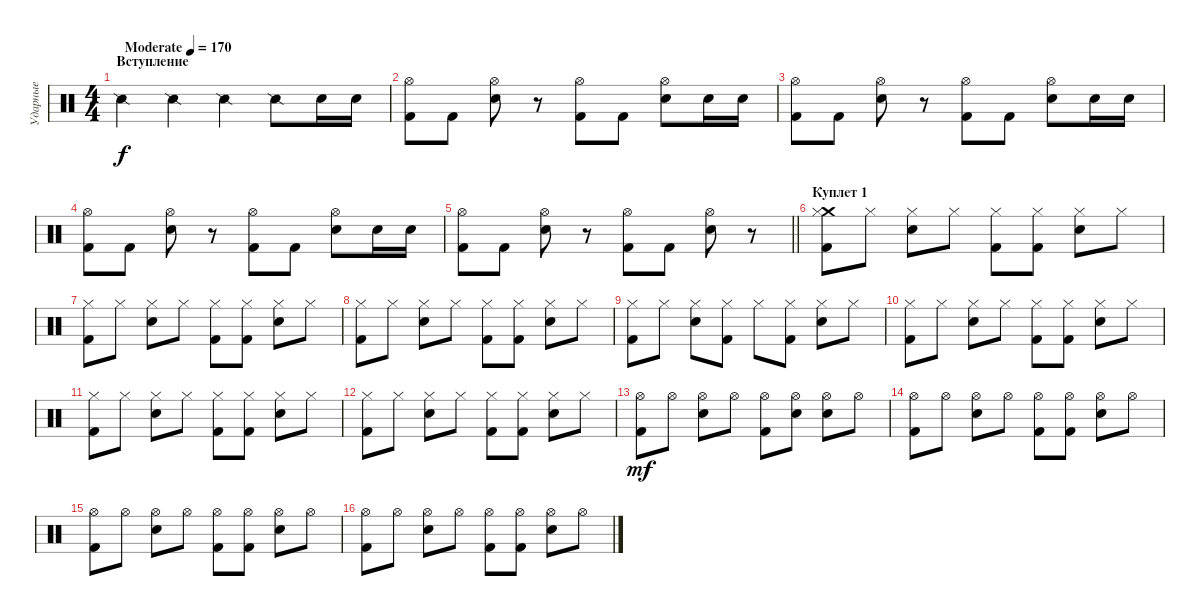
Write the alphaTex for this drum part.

\track ("Ударные" "Ударные") {instrument percussion}
\staff {score}
\articulation defaults
\ts (4 4)
\section ("" "Вступление")
\tempo (170 "Moderate")
\clef neutral
\ks c "Snare (side stick) 2".4{dy f} "Snare (side stick) 2".4 "Snare (side stick) 2".4 "Snare (side stick) 2".8 "Snare (hit) 2".16 "Snare (hit) 2".16
|
("Hi-Hat (open)" "Kick (hit) 2").8 "Kick (hit) 2".8 ("Hi-Hat (open)" "Snare (hit) 2").8 r.8 ("Hi-Hat (open)" "Kick (hit) 2").8 "Kick (hit) 2".8 ("Hi-Hat (open)" "Snare (hit) 2").8 "Snare (hit) 2".16 "Snare (hit) 2".16 |
("Hi-Hat (open)" "Kick (hit) 2").8 "Kick (hit) 2".8 ("Hi-Hat (open)" "Snare (hit) 2").8 r.8 ("Hi-Hat (open)" "Kick (hit) 2").8 "Kick (hit) 2".8 ("Hi-Hat (open)" "Snare (hit) 2").8 "Snare (hit) 2".16 "Snare (hit) 2".16 |
("Hi-Hat (open)" "Kick (hit) 2").8 "Kick (hit) 2".8 ("Hi-Hat (open)" "Snare (hit) 2").8 r.8 ("Hi-Hat (open)" "Kick (hit) 2").8 "Kick (hit) 2".8 ("Hi-Hat (open)" "Snare (hit) 2").8 "Snare (hit) 2".16 "Snare (hit) 2".16 |
\barLineRight lightlight
("Hi-Hat (open)" "Kick (hit) 2").8 "Kick (hit) 2".8 ("Hi-Hat (open)" "Snare (hit) 2").8 r.8 ("Hi-Hat (open)" "Kick (hit) 2").8 "Kick (hit) 2".8 ("Hi-Hat (open)" "Snare (hit) 2").8 r.8 |
\section ("" "Куплет 1")
("Crash medium (hit)" "Hi-Hat (closed)" "Kick (hit) 2").8 "Hi-Hat (closed)".8 ("Hi-Hat (closed)" "Snare (hit) 2").8 "Hi-Hat (closed)".8 ("Hi-Hat (closed)" "Kick (hit) 2").8 ("Hi-Hat (closed)" "Kick (hit) 2").8 ("Hi-Hat (closed)" "Snare (hit) 2").8 "Hi-Hat (closed)".8 |
("Hi-Hat (closed)" "Kick (hit) 2").8 "Hi-Hat (closed)".8 ("Hi-Hat (closed)" "Snare (hit) 2").8 "Hi-Hat (closed)".8 ("Hi-Hat (closed)" "Kick (hit) 2").8 ("Hi-Hat (closed)" "Kick (hit) 2").8 ("Hi-Hat (closed)" "Snare (hit) 2").8 "Hi-Hat (closed)".8 |
("Hi-Hat (closed)" "Kick (hit) 2").8 "Hi-Hat (closed)".8 ("Hi-Hat (closed)" "Snare (hit) 2").8 "Hi-Hat (closed)".8 ("Hi-Hat (closed)" "Kick (hit) 2").8 ("Hi-Hat (closed)" "Kick (hit) 2").8 ("Hi-Hat (closed)" "Snare (hit) 2").8 "Hi-Hat (closed)".8 |
("Hi-Hat (closed)" "Kick (hit) 2").8 "Hi-Hat (closed)".8 ("Hi-Hat (closed)" "Snare (hit) 2").8 ("Hi-Hat (closed)" "Kick (hit) 2").8 "Hi-Hat (closed)".8 ("Hi-Hat (closed)" "Kick (hit) 2").8 ("Hi-Hat (closed)" "Snare (hit) 2").8 "Hi-Hat (closed)".8 |
("Hi-Hat (closed)" "Kick (hit) 2").8 "Hi-Hat (closed)".8 ("Hi-Hat (closed)" "Snare (hit) 2").8 "Hi-Hat (closed)".8 ("Hi-Hat (closed)" "Kick (hit) 2").8 ("Hi-Hat (closed)" "Kick (hit) 2").8 ("Hi-Hat (closed)" "Snare (hit) 2").8 "Hi-Hat (closed)".8 |
("Hi-Hat (closed)" "Kick (hit) 2").8 "Hi-Hat (closed)".8 ("Hi-Hat (closed)" "Snare (hit) 2").8 "Hi-Hat (closed)".8 ("Hi-Hat (closed)" "Kick (hit) 2").8 ("Hi-Hat (closed)" "Kick (hit) 2").8 ("Hi-Hat (closed)" "Snare (hit) 2").8 "Hi-Hat (closed)".8 |
("Hi-Hat (closed)" "Kick (hit) 2").8 "Hi-Hat (closed)".8 ("Hi-Hat (closed)" "Snare (hit) 2").8 "Hi-Hat (closed)".8 ("Hi-Hat (closed)" "Kick (hit) 2").8 ("Hi-Hat (closed)" "Kick (hit) 2").8 ("Hi-Hat (closed)" "Snare (hit) 2").8 "Hi-Hat (closed)".8 |
("Hi-Hat (open)" "Kick (hit) 2").8{dy mf} "Hi-Hat (open)".8 ("Hi-Hat (open)" "Snare (hit) 2").8 "Hi-Hat (open)".8 ("Hi-Hat (open)" "Kick (hit) 2").8 ("Hi-Hat (open)" "Snare (hit) 2").8 ("Hi-Hat (open)" "Snare (hit) 2").8 "Hi-Hat (open)".8 |
("Hi-Hat (open)" "Kick (hit) 2").8 "Hi-Hat (open)".8 ("Hi-Hat (open)" "Snare (hit) 2").8 "Hi-Hat (open)".8 ("Hi-Hat (open)" "Kick (hit) 2").8 ("Hi-Hat (open)" "Kick (hit) 2").8 ("Hi-Hat (open)" "Snare (hit) 2").8 "Hi-Hat (open)".8 |
("Hi-Hat (open)" "Kick (hit) 2").8 "Hi-Hat (open)".8 ("Hi-Hat (open)" "Snare (hit) 2").8 "Hi-Hat (open)".8 ("Hi-Hat (open)" "Kick (hit) 2").8 ("Hi-Hat (open)" "Kick (hit) 2").8 ("Hi-Hat (open)" "Snare (hit) 2").8 "Hi-Hat (open)".8 |
("Hi-Hat (open)" "Kick (hit) 2").8 "Hi-Hat (open)".8 ("Hi-Hat (open)" "Snare (hit) 2").8 "Hi-Hat (open)".8 ("Hi-Hat (open)" "Kick (hit) 2").8 ("Hi-Hat (open)" "Kick (hit) 2").8 ("Hi-Hat (open)" "Snare (hit) 2").8 "Hi-Hat (open)".8
